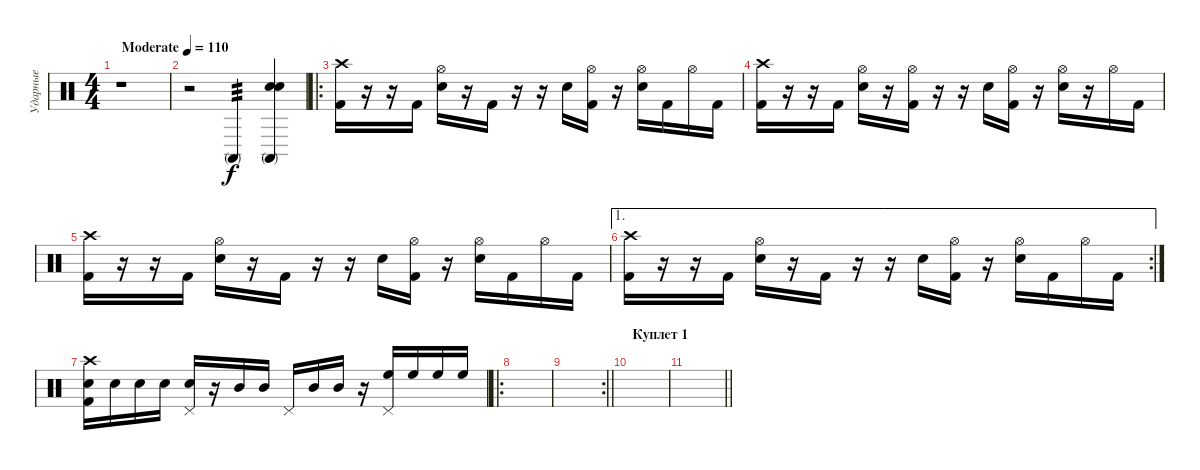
\track ("Ударные" "Ударные") {instrument percussion}
\staff {score}
\articulation defaults
\ts (4 4)
\tempo (110 "Moderate")
\clef neutral
\ks c
r.1{dy f} |
r.2 "Conga high (mute)".4{tp 3} ("Conga high (mute)" "Electric Snare (hit)" "Electric Snare (hit)").4 |
\ro
("Kick (hit) 2" "Crash high (hit)").16 r.16 r.16 "Kick (hit) 2".16 ("Electric Snare (hit)" "Hi-Hat (open)").16 r.16 "Kick (hit) 2".16 r.16 r.16 "Electric Snare (hit)".16 ("Kick (hit) 2" "Hi-Hat (open)").16 r.16 ("Electric Snare (hit)" "Hi-Hat (open)").16 "Kick (hit) 2".16 "Hi-Hat (open)".16 "Kick (hit) 2".16 |
("Kick (hit) 2" "Crash high (hit)").16 r.16 r.16 "Kick (hit) 2".16 ("Electric Snare (hit)" "Hi-Hat (open)").16 r.16 ("Kick (hit) 2" "Hi-Hat (open)").16 r.16 r.16 "Electric Snare (hit)".16 ("Kick (hit) 2" "Hi-Hat (open)").16 r.16 ("Electric Snare (hit)" "Hi-Hat (open)").16 r.16 "Hi-Hat (open)".16 "Kick (hit) 2".16 |
("Kick (hit) 2" "Crash high (hit)").16 r.16 r.16 "Kick (hit) 2".16 ("Electric Snare (hit)" "Hi-Hat (open)").16 r.16 "Kick (hit) 2".16 r.16 r.16 "Electric Snare (hit)".16 ("Kick (hit) 2" "Hi-Hat (open)").16 r.16 ("Electric Snare (hit)" "Hi-Hat (open)").16 "Kick (hit) 2".16 "Hi-Hat (open)".16 "Kick (hit) 2".16 |
\ae 1
\rc 2
("Kick (hit) 2" "Crash high (hit)").16 r.16 r.16 "Kick (hit) 2".16 ("Electric Snare (hit)" "Hi-Hat (open)").16 r.16 "Kick (hit) 2".16 r.16 r.16 "Electric Snare (hit)".16 ("Kick (hit) 2" "Hi-Hat (open)").16 r.16 ("Electric Snare (hit)" "Hi-Hat (open)").16 "Kick (hit) 2".16 "Hi-Hat (open)".16 "Kick (hit) 2".16 |
("Kick (hit) 2" "Electric Snare (hit)" "Crash high (hit)").16 "Electric Snare (hit)".16 "Electric Snare (hit)".16 "Electric Snare (hit)".16 ("Electric Snare (hit)" "Pedal Hi-Hat (hit)").16 r.16 "Mid Tom (hit)".16 "Mid Tom (hit)".16 "Pedal Hi-Hat (hit)".16 "Mid Tom (hit)".16 "Mid Tom (hit)".16 r.16 ("High Floor Tom (hit)" "Pedal Hi-Hat (hit)").16 "High Floor Tom (hit)".16 "High Floor Tom (hit)".16 "High Floor Tom (hit)".16 |
\ro
|
\rc 2
\barLineRight lightlight
|
\section ("" "Куплет 1")
|
\barLineRight lightlight
